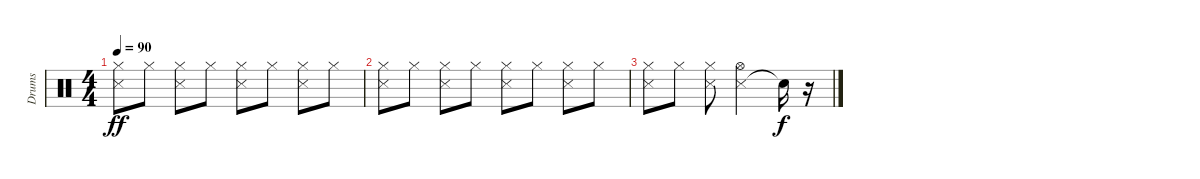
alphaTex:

\track ("Drums" "Drums") {instrument percussion}
\staff {score}
\articulation defaults
\ts (4 4)
\tempo 90
\clef neutral
\ks c
("Snare (side stick) 3" "Hi-Hat (closed)").8{dy ff} "Hi-Hat (closed)".8 ("Snare (side stick) 3" "Hi-Hat (closed)").8 "Hi-Hat (closed)".8 ("Snare (side stick) 3" "Hi-Hat (closed)").8 "Hi-Hat (closed)".8 ("Snare (side stick) 3" "Hi-Hat (closed)").8 "Hi-Hat (closed)".8 |
("Snare (side stick) 3" "Hi-Hat (closed)").8 "Hi-Hat (closed)".8 ("Snare (side stick) 3" "Hi-Hat (closed)").8 "Hi-Hat (closed)".8 ("Snare (side stick) 3" "Hi-Hat (closed)").8 "Hi-Hat (closed)".8 ("Snare (side stick) 3" "Hi-Hat (closed)").8 "Hi-Hat (closed)".8 |
("Snare (side stick) 3" "Hi-Hat (closed)").8 "Hi-Hat (closed)".8 ("Snare (side stick) 3" "Hi-Hat (closed)").8 ("Snare (side stick) 3" "Hi-Hat (open)").2 "Snare (hit)"{t}.16{dy f} r.16
